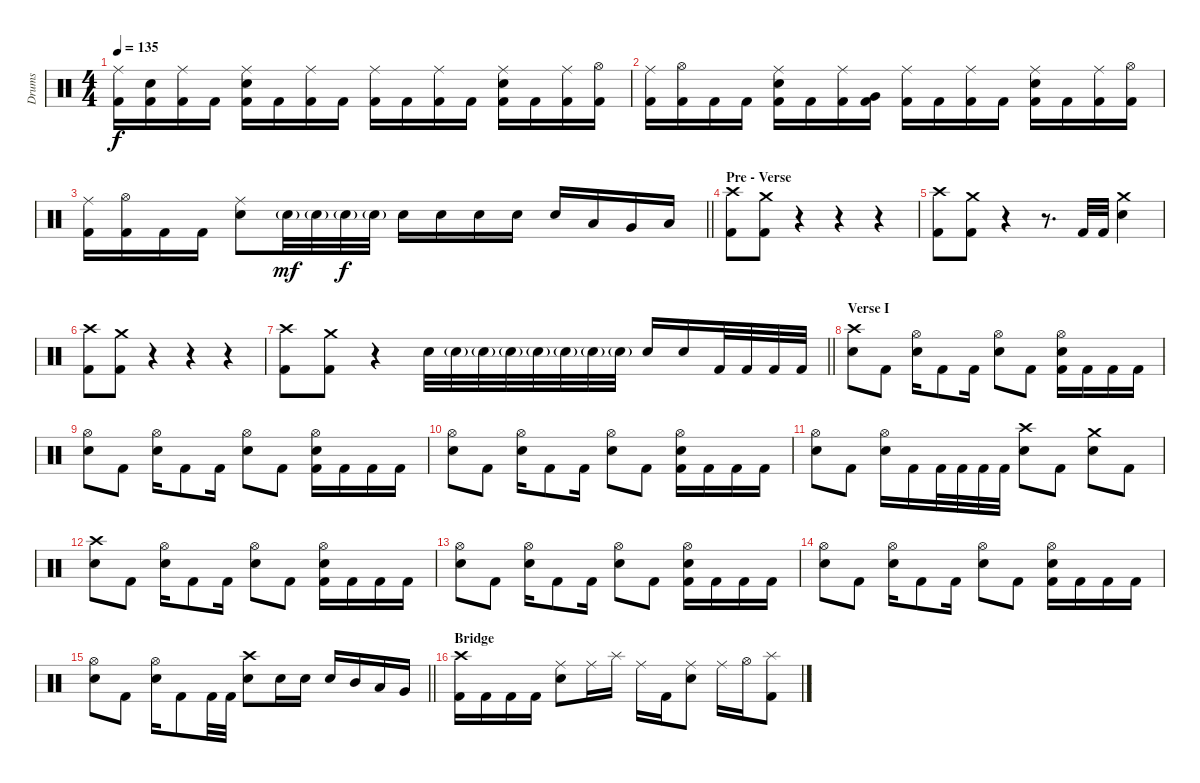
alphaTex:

\track ("Drums" "Drums") {instrument percussion}
\staff {score}
\articulation defaults
\ts (4 4)
\tempo 135
\clef neutral
\ks c
("Ride (middle)" "Kick (hit) 2").16{dy f} ("Electric Snare (hit)" "Kick (hit) 2").16 ("Ride (middle)" "Kick (hit) 2").16 "Kick (hit) 2".16 ("Ride (middle)" "Electric Snare (hit)" "Kick (hit) 2").16 "Kick (hit) 2".16 ("Ride (middle)" "Kick (hit) 2").16 "Kick (hit) 2".16 ("Ride (middle)" "Kick (hit) 2").16 "Kick (hit) 2".16 ("Ride (middle)" "Kick (hit) 2").16 "Kick (hit) 2".16 ("Ride (middle)" "Electric Snare (hit)" "Kick (hit) 2").16 "Kick (hit) 2".16 ("Ride (middle)" "Kick (hit) 2").16 ("Hi-Hat (open)" "Kick (hit) 2").16 |
("Ride (middle)" "Kick (hit) 2").16 ("Hi-Hat (open)" "Kick (hit) 2").16 "Kick (hit) 2".16 "Kick (hit) 2".16 ("Ride (middle)" "Electric Snare (hit)" "Kick (hit) 2").16 "Kick (hit) 2".16 ("Ride (middle)" "Kick (hit) 2").16 ("Very Low Tom (hit)" "Kick (hit) 2").16 ("Ride (middle)" "Kick (hit) 2").16 "Kick (hit) 2".16 ("Ride (middle)" "Kick (hit) 2").16 "Kick (hit) 2".16 ("Ride (middle)" "Electric Snare (hit)" "Kick (hit) 2").16 "Kick (hit) 2".16 ("Ride (middle)" "Kick (hit) 2").16 ("Hi-Hat (open)" "Kick (hit) 2").16 |
\barLineRight lightlight
("Ride (middle)" "Kick (hit) 2").16 ("Hi-Hat (open)" "Kick (hit) 2").16 "Kick (hit) 2".16 "Kick (hit) 2".16 ("Ride (middle)" "Electric Snare (hit)").8 "Electric Snare (hit)"{g}.32{dy mf} "Electric Snare (hit)"{g}.32 "Electric Snare (hit)"{g}.32{dy f} "Electric Snare (hit)"{g}.32 "Electric Snare (hit)".16 "Electric Snare (hit)".16 "Electric Snare (hit)".16 "Electric Snare (hit)".16 "Electric Snare (hit)".16 "Low Tom (hit)".16 "Very Low Tom (hit)".16 "Low Floor Tom (hit)".16 |
\section ("" "Pre - Verse")
("Crash high (hit)" "Kick (hit) 2").8 ("Crash medium (hit)" "Kick (hit) 2").8 r.4 r.4 r.4 |
("Crash high (hit)" "Kick (hit) 2").8 ("Crash medium (hit)" "Kick (hit) 2").8 r.4 r.8{d} "Kick (hit) 2".32 "Kick (hit) 2".32 ("Crash medium (hit)" "Electric Snare (hit)").4 |
("Crash high (hit)" "Kick (hit) 2").8 ("Crash medium (hit)" "Kick (hit) 2").8 r.4 r.4 r.4 |
\barLineRight lightlight
("Crash high (hit)" "Kick (hit) 2").8 ("Crash medium (hit)" "Kick (hit) 2").8 r.4 "Electric Snare (hit)".32 "Electric Snare (hit)"{g}.32 "Electric Snare (hit)"{g}.32 "Electric Snare (hit)"{g}.32 "Electric Snare (hit)"{g}.32 "Electric Snare (hit)"{g}.32 "Electric Snare (hit)"{g}.32 "Electric Snare (hit)"{g}.32 "Electric Snare (hit)".16 "Electric Snare (hit)".16 "Kick (hit) 2".32 "Kick (hit) 2".32 "Kick (hit) 2".32 "Kick (hit) 2".32 |
\section ("" "Verse I")
("Crash high (hit)" "Electric Snare (hit)").8 "Kick (hit) 2".8 ("Hi-Hat (open)" "Electric Snare (hit)").16 "Kick (hit) 2".8 "Kick (hit) 2".16 ("Hi-Hat (open)" "Electric Snare (hit)").8 "Kick (hit) 2".8 ("Hi-Hat (open)" "Electric Snare (hit)" "Kick (hit) 2").16 "Kick (hit) 2".16 "Kick (hit) 2".16 "Kick (hit) 2".16 |
("Hi-Hat (open)" "Electric Snare (hit)").8 "Kick (hit) 2".8 ("Hi-Hat (open)" "Electric Snare (hit)").16 "Kick (hit) 2".8 "Kick (hit) 2".16 ("Hi-Hat (open)" "Electric Snare (hit)").8 "Kick (hit) 2".8 ("Hi-Hat (open)" "Electric Snare (hit)" "Kick (hit) 2").16 "Kick (hit) 2".16 "Kick (hit) 2".16 "Kick (hit) 2".16 |
("Hi-Hat (open)" "Electric Snare (hit)").8 "Kick (hit) 2".8 ("Hi-Hat (open)" "Electric Snare (hit)").16 "Kick (hit) 2".8 "Kick (hit) 2".16 ("Hi-Hat (open)" "Electric Snare (hit)").8 "Kick (hit) 2".8 ("Hi-Hat (open)" "Electric Snare (hit)" "Kick (hit) 2").16 "Kick (hit) 2".16 "Kick (hit) 2".16 "Kick (hit) 2".16 |
("Hi-Hat (open)" "Electric Snare (hit)").8 "Kick (hit) 2".8 ("Hi-Hat (open)" "Electric Snare (hit)").16 "Kick (hit) 2".16 "Kick (hit) 2".32 "Kick (hit) 2".32 "Kick (hit) 2".32 "Kick (hit) 2".32 ("Crash high (hit)" "Electric Snare (hit)").8 "Kick (hit) 2".8 ("Crash medium (hit)" "Electric Snare (hit)").8 "Kick (hit) 2".8 |
("Crash high (hit)" "Electric Snare (hit)").8 "Kick (hit) 2".8 ("Hi-Hat (open)" "Electric Snare (hit)").16 "Kick (hit) 2".8 "Kick (hit) 2".16 ("Hi-Hat (open)" "Electric Snare (hit)").8 "Kick (hit) 2".8 ("Hi-Hat (open)" "Electric Snare (hit)" "Kick (hit) 2").16 "Kick (hit) 2".16 "Kick (hit) 2".16 "Kick (hit) 2".16 |
("Hi-Hat (open)" "Electric Snare (hit)").8 "Kick (hit) 2".8 ("Hi-Hat (open)" "Electric Snare (hit)").16 "Kick (hit) 2".8 "Kick (hit) 2".16 ("Hi-Hat (open)" "Electric Snare (hit)").8 "Kick (hit) 2".8 ("Hi-Hat (open)" "Electric Snare (hit)" "Kick (hit) 2").16 "Kick (hit) 2".16 "Kick (hit) 2".16 "Kick (hit) 2".16 |
("Hi-Hat (open)" "Electric Snare (hit)").8 "Kick (hit) 2".8 ("Hi-Hat (open)" "Electric Snare (hit)").16 "Kick (hit) 2".8 "Kick (hit) 2".16 ("Hi-Hat (open)" "Electric Snare (hit)").8 "Kick (hit) 2".8 ("Hi-Hat (open)" "Electric Snare (hit)" "Kick (hit) 2").16 "Kick (hit) 2".16 "Kick (hit) 2".16 "Kick (hit) 2".16 |
\barLineRight lightlight
("Hi-Hat (open)" "Electric Snare (hit)").8 "Kick (hit) 2".8 ("Hi-Hat (open)" "Electric Snare (hit)").16 "Kick (hit) 2".8 "Kick (hit) 2".32 "Kick (hit) 2".32 ("Crash high (hit)" "Electric Snare (hit)").8 "Electric Snare (hit)".16 "Electric Snare (hit)".16 "Electric Snare (hit)".16 "Mid Tom (hit)".16 "Low Tom (hit)".16 "Very Low Tom (hit)".16 |
\section ("" "Bridge")
("Crash high (hit)" "Kick (hit) 2").16 "Kick (hit) 2".16 "Kick (hit) 2".16 "Kick (hit) 2".16 ("Ride (middle)" "Electric Snare (hit)").8 "Ride (middle)".16 "Splash (hit)".16 "Ride (middle)".16 "Kick (hit) 2".16 ("Ride (middle)" "Electric Snare (hit)").8 "Ride (middle)".16 "Hi-Hat (open)".16 ("Splash (hit)" "Kick (hit) 2").8
